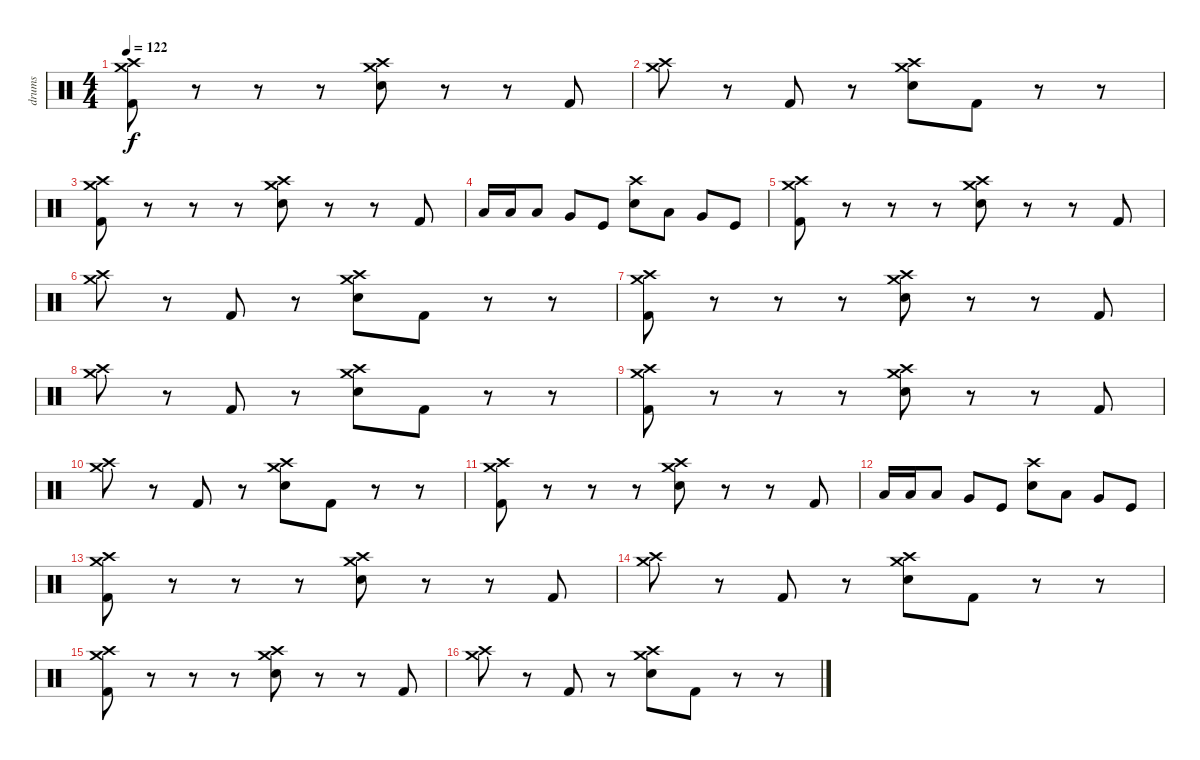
\track ("drums" "drums") {instrument percussion}
\staff {score}
\articulation defaults
\ts (4 4)
\tempo 122
\clef neutral
\ks c
("Crash medium (hit)" "Crash high (hit)" "Kick (hit) 2").8{dy f} r.8 r.8 r.8 ("Crash medium (hit)" "Crash high (hit)" "Electric Snare (hit)").8 r.8 r.8 "Kick (hit) 2".8 |
("Crash medium (hit)" "Crash high (hit)").8 r.8 "Kick (hit) 2".8 r.8 ("Crash medium (hit)" "Crash high (hit)" "Electric Snare (hit)").8 "Kick (hit) 2".8 r.8 r.8 |
("Crash medium (hit)" "Crash high (hit)" "Kick (hit) 2").8 r.8 r.8 r.8 ("Crash medium (hit)" "Crash high (hit)" "Electric Snare (hit)").8 r.8 r.8 "Kick (hit) 2".8 |
"Low Tom (hit)".16 "Low Tom (hit)".16 "Low Tom (hit)".8 "Very Low Tom (hit)".8 "Kick (hit)".8 ("Crash high (hit)" "Electric Snare (hit)").8 "Low Tom (hit)".8 "Very Low Tom (hit)".8 "Kick (hit)".8 |
("Crash medium (hit)" "Crash high (hit)" "Kick (hit) 2").8 r.8 r.8 r.8 ("Crash medium (hit)" "Crash high (hit)" "Electric Snare (hit)").8 r.8 r.8 "Kick (hit) 2".8 |
("Crash medium (hit)" "Crash high (hit)").8 r.8 "Kick (hit) 2".8 r.8 ("Crash medium (hit)" "Crash high (hit)" "Electric Snare (hit)").8 "Kick (hit) 2".8 r.8 r.8 |
("Crash medium (hit)" "Crash high (hit)" "Kick (hit) 2").8 r.8 r.8 r.8 ("Crash medium (hit)" "Crash high (hit)" "Electric Snare (hit)").8 r.8 r.8 "Kick (hit) 2".8 |
("Crash medium (hit)" "Crash high (hit)").8 r.8 "Kick (hit) 2".8 r.8 ("Crash medium (hit)" "Crash high (hit)" "Electric Snare (hit)").8 "Kick (hit) 2".8 r.8 r.8 |
("Crash medium (hit)" "Crash high (hit)" "Kick (hit) 2").8 r.8 r.8 r.8 ("Crash medium (hit)" "Crash high (hit)" "Electric Snare (hit)").8 r.8 r.8 "Kick (hit) 2".8 |
("Crash medium (hit)" "Crash high (hit)").8 r.8 "Kick (hit) 2".8 r.8 ("Crash medium (hit)" "Crash high (hit)" "Electric Snare (hit)").8 "Kick (hit) 2".8 r.8 r.8 |
("Crash medium (hit)" "Crash high (hit)" "Kick (hit) 2").8 r.8 r.8 r.8 ("Crash medium (hit)" "Crash high (hit)" "Electric Snare (hit)").8 r.8 r.8 "Kick (hit) 2".8 |
"Low Tom (hit)".16 "Low Tom (hit)".16 "Low Tom (hit)".8 "Very Low Tom (hit)".8 "Kick (hit)".8 ("Crash high (hit)" "Electric Snare (hit)").8 "Low Tom (hit)".8 "Very Low Tom (hit)".8 "Kick (hit)".8 |
("Crash medium (hit)" "Crash high (hit)" "Kick (hit) 2").8 r.8 r.8 r.8 ("Crash medium (hit)" "Crash high (hit)" "Electric Snare (hit)").8 r.8 r.8 "Kick (hit) 2".8 |
("Crash medium (hit)" "Crash high (hit)").8 r.8 "Kick (hit) 2".8 r.8 ("Crash medium (hit)" "Crash high (hit)" "Electric Snare (hit)").8 "Kick (hit) 2".8 r.8 r.8 |
("Crash medium (hit)" "Crash high (hit)" "Kick (hit) 2").8 r.8 r.8 r.8 ("Crash medium (hit)" "Crash high (hit)" "Electric Snare (hit)").8 r.8 r.8 "Kick (hit) 2".8 |
("Crash medium (hit)" "Crash high (hit)").8 r.8 "Kick (hit) 2".8 r.8 ("Crash medium (hit)" "Crash high (hit)" "Electric Snare (hit)").8 "Kick (hit) 2".8 r.8 r.8
